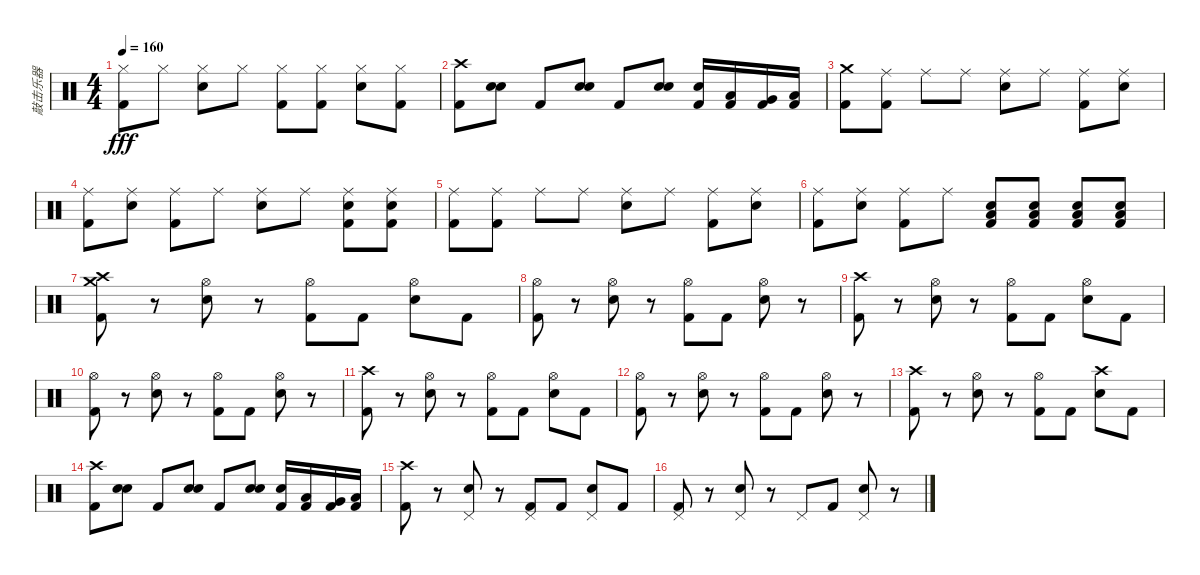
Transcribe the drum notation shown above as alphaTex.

\track ("敲击乐器" "敲击乐器") {instrument percussion}
\staff {score}
\articulation defaults
\ts (4 4)
\tempo 160
\clef neutral
\ks c
("Hi-Hat (closed)" "Kick (hit) 2").8{dy fff} "Hi-Hat (closed)".8 ("Hi-Hat (closed)" "Electric Snare (hit)").8 "Hi-Hat (closed)".8 ("Hi-Hat (closed)" "Kick (hit) 2").8 ("Hi-Hat (closed)" "Kick (hit) 2").8 ("Hi-Hat (closed)" "Electric Snare (hit)").8 ("Hi-Hat (closed)" "Kick (hit) 2").8 |
("Crash high (hit)" "Kick (hit) 2").8 ("Snare (hit) 2" "Electric Snare (hit)").8 "Kick (hit) 2".8 ("Snare (hit) 2" "Electric Snare (hit)").8 "Kick (hit) 2".8 ("Snare (hit) 2" "Electric Snare (hit)").8 ("Electric Snare (hit)" "Kick (hit) 2").16 ("Low Tom (hit)" "Kick (hit) 2").16 ("Very Low Tom (hit)" "Kick (hit) 2").16 ("Low Floor Tom (hit)" "Kick (hit) 2").16 |
("Crash medium (hit)" "Kick (hit) 2").8 ("Ride (middle)" "Kick (hit) 2").8 "Ride (middle)".8 "Ride (middle)".8 ("Ride (middle)" "Electric Snare (hit)").8 "Ride (middle)".8 ("Ride (middle)" "Kick (hit) 2").8 ("Ride (middle)" "Electric Snare (hit)").8 |
("Ride (middle)" "Kick (hit) 2").8 ("Ride (middle)" "Electric Snare (hit)").8 ("Ride (middle)" "Kick (hit) 2").8 "Ride (middle)".8 ("Ride (middle)" "Electric Snare (hit)").8 "Ride (middle)".8 ("Ride (middle)" "Electric Snare (hit)" "Kick (hit) 2").8 ("Ride (middle)" "Electric Snare (hit)" "Kick (hit) 2").8 |
("Ride (middle)" "Kick (hit) 2").8 ("Ride (middle)" "Kick (hit) 2").8 "Ride (middle)".8 "Ride (middle)".8 ("Ride (middle)" "Electric Snare (hit)").8 "Ride (middle)".8 ("Ride (middle)" "Kick (hit) 2").8 ("Ride (middle)" "Electric Snare (hit)").8 |
("Ride (middle)" "Kick (hit) 2").8 ("Ride (middle)" "Electric Snare (hit)").8 ("Ride (middle)" "Kick (hit) 2").8 "Ride (middle)".8 ("Low Floor Tom (hit)" "Electric Snare (hit)" "Kick (hit) 2").8 ("Low Floor Tom (hit)" "Electric Snare (hit)" "Kick (hit) 2").8 ("Low Floor Tom (hit)" "Electric Snare (hit)" "Kick (hit) 2").8 ("Low Floor Tom (hit)" "Electric Snare (hit)" "Kick (hit) 2").8 |
("Crash high (hit)" "Crash medium (hit)" "Kick (hit) 2").8 r.8 ("Hi-Hat (open)" "Electric Snare (hit)").8 r.8 ("Hi-Hat (open)" "Kick (hit) 2").8 "Kick (hit) 2".8 ("Hi-Hat (open)" "Electric Snare (hit)").8 "Kick (hit) 2".8 |
("Hi-Hat (open)" "Kick (hit) 2").8 r.8 ("Hi-Hat (open)" "Electric Snare (hit)").8 r.8 ("Hi-Hat (open)" "Kick (hit) 2").8 "Kick (hit) 2".8 ("Hi-Hat (open)" "Electric Snare (hit)").8 r.8 |
("Crash high (hit)" "Kick (hit) 2").8 r.8 ("Hi-Hat (open)" "Electric Snare (hit)").8 r.8 ("Hi-Hat (open)" "Kick (hit) 2").8 "Kick (hit) 2".8 ("Hi-Hat (open)" "Electric Snare (hit)").8 "Kick (hit) 2".8 |
("Hi-Hat (open)" "Kick (hit) 2").8 r.8 ("Hi-Hat (open)" "Electric Snare (hit)").8 r.8 ("Hi-Hat (open)" "Kick (hit) 2").8 "Kick (hit) 2".8 ("Hi-Hat (open)" "Electric Snare (hit)").8 r.8 |
("Crash high (hit)" "Kick (hit) 2").8 r.8 ("Hi-Hat (open)" "Electric Snare (hit)").8 r.8 ("Hi-Hat (open)" "Kick (hit) 2").8 "Kick (hit) 2".8 ("Hi-Hat (open)" "Electric Snare (hit)").8 "Kick (hit) 2".8 |
("Hi-Hat (open)" "Kick (hit) 2").8 r.8 ("Hi-Hat (open)" "Electric Snare (hit)").8 r.8 ("Hi-Hat (open)" "Kick (hit) 2").8 "Kick (hit) 2".8 ("Hi-Hat (open)" "Electric Snare (hit)").8 r.8 |
("Crash high (hit)" "Kick (hit) 2").8 r.8 ("Hi-Hat (open)" "Electric Snare (hit)").8 r.8 ("Hi-Hat (open)" "Kick (hit) 2").8 "Kick (hit) 2".8 ("Crash high (hit)" "Electric Snare (hit)").8 "Kick (hit) 2".8 |
("Crash high (hit)" "Kick (hit) 2").8 ("Snare (hit) 2" "Electric Snare (hit)").8 "Kick (hit) 2".8 ("Snare (hit) 2" "Electric Snare (hit)").8 "Kick (hit) 2".8 ("Snare (hit) 2" "Electric Snare (hit)").8 ("Electric Snare (hit)" "Kick (hit) 2").16 ("Low Tom (hit)" "Kick (hit) 2").16 ("Very Low Tom (hit)" "Kick (hit) 2").16 ("Low Floor Tom (hit)" "Kick (hit) 2").16 |
("Crash high (hit)" "Kick (hit) 2").8 r.8 ("Pedal Hi-Hat (hit)" "Electric Snare (hit)").8 r.8 ("Pedal Hi-Hat (hit)" "Kick (hit) 2").8 "Kick (hit) 2".8 ("Pedal Hi-Hat (hit)" "Electric Snare (hit)").8 "Kick (hit) 2".8 |
("Pedal Hi-Hat (hit)" "Kick (hit) 2").8 r.8 ("Pedal Hi-Hat (hit)" "Electric Snare (hit)").8 r.8 "Pedal Hi-Hat (hit)".8 "Kick (hit) 2".8 ("Pedal Hi-Hat (hit)" "Electric Snare (hit)").8 r.8
